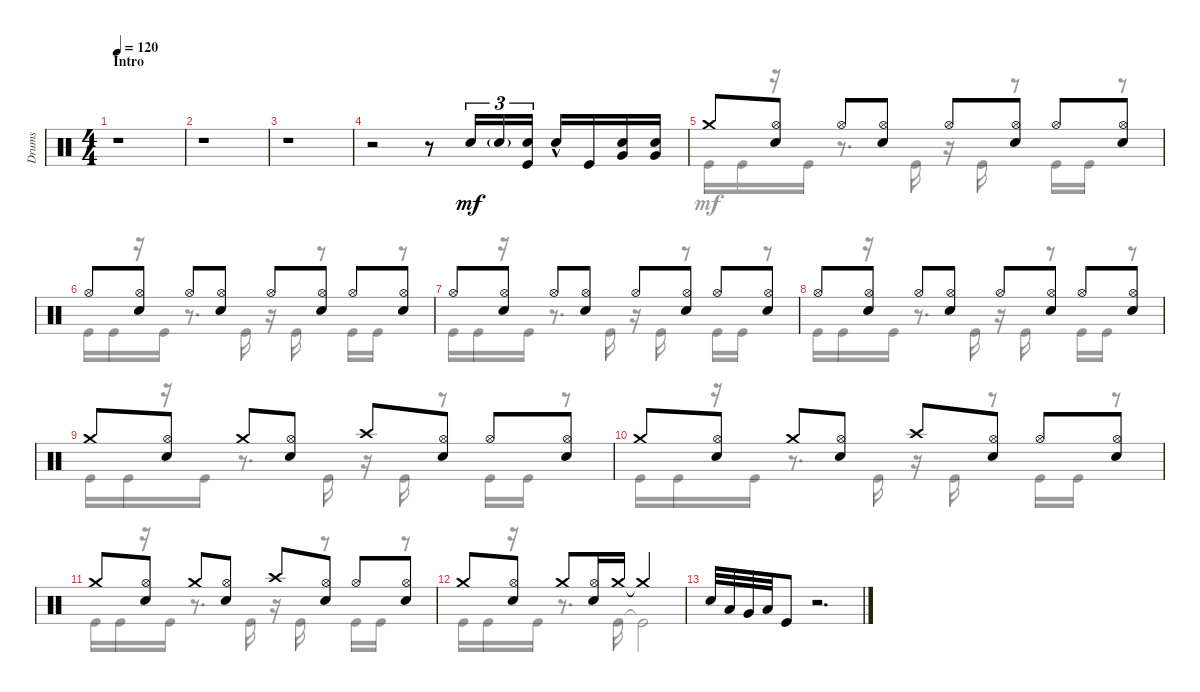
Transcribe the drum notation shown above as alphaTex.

\track ("Drums" "Drums") {instrument percussion}
\staff {score}
\articulation defaults
\voice
\ts (4 4)
\section ("" "Intro")
\tempo 120
\clef neutral
\ks c
r.1{dy mf} |
r.1 |
r.1 |
r.2 r.8 "Snare (hit) 2".16{tu (3 2)} "Snare (hit) 2"{g}.16{tu (3 2)} ("Snare (hit) 2" "Kick (hit)").16{tu (3 2)} "Snare (hit) 2"{hac}.16 "Kick (hit)".16 ("Snare (hit) 2" "Very Low Tom (hit)").16 ("Snare (hit) 2" "Very Low Tom (hit)").16 |
\section ("" "")
"Crash medium (hit)".8 ("Hi-Hat (open)" "Snare (hit) 2").8 "Hi-Hat (open)".8 ("Hi-Hat (open)" "Snare (hit) 2").8 "Hi-Hat (open)".8 ("Hi-Hat (open)" "Snare (hit) 2").8 "Hi-Hat (open)".8 ("Hi-Hat (open)" "Snare (hit) 2").8 |
"Hi-Hat (open)".8 ("Hi-Hat (open)" "Snare (hit) 2").8 "Hi-Hat (open)".8 ("Hi-Hat (open)" "Snare (hit) 2").8 "Hi-Hat (open)".8 ("Hi-Hat (open)" "Snare (hit) 2").8 "Hi-Hat (open)".8 ("Hi-Hat (open)" "Snare (hit) 2").8 |
"Hi-Hat (open)".8 ("Hi-Hat (open)" "Snare (hit) 2").8 "Hi-Hat (open)".8 ("Hi-Hat (open)" "Snare (hit) 2").8 "Hi-Hat (open)".8 ("Hi-Hat (open)" "Snare (hit) 2").8 "Hi-Hat (open)".8 ("Hi-Hat (open)" "Snare (hit) 2").8 |
"Hi-Hat (open)".8 ("Hi-Hat (open)" "Snare (hit) 2").8 "Hi-Hat (open)".8 ("Hi-Hat (open)" "Snare (hit) 2").8 "Hi-Hat (open)".8 ("Hi-Hat (open)" "Snare (hit) 2").8 "Hi-Hat (open)".8 ("Hi-Hat (open)" "Snare (hit) 2").8 |
\section ("" "")
"Crash medium (hit)".8 ("Hi-Hat (open)" "Snare (hit) 2").8 "Crash medium (hit)".8 ("Hi-Hat (open)" "Snare (hit) 2").8 "Crash high (hit)".8 ("Hi-Hat (open)" "Snare (hit) 2").8 "Hi-Hat (open)".8 ("Hi-Hat (open)" "Snare (hit) 2").8 |
"Crash medium (hit)".8 ("Hi-Hat (open)" "Snare (hit) 2").8 "Crash medium (hit)".8 ("Hi-Hat (open)" "Snare (hit) 2").8 "Crash high (hit)".8 ("Hi-Hat (open)" "Snare (hit) 2").8 "Hi-Hat (open)".8 ("Hi-Hat (open)" "Snare (hit) 2").8 |
"Crash medium (hit)".8 ("Hi-Hat (open)" "Snare (hit) 2").8 "Crash medium (hit)".8 ("Hi-Hat (open)" "Snare (hit) 2").8 "Crash high (hit)".8 ("Hi-Hat (open)" "Snare (hit) 2").8 "Hi-Hat (open)".8 ("Hi-Hat (open)" "Snare (hit) 2").8 |
"Crash medium (hit)".8 ("Hi-Hat (open)" "Snare (hit) 2").8 "Crash medium (hit)".8 ("Hi-Hat (open)" "Snare (hit) 2").16 "Crash medium (hit)".16 "Crash medium (hit)"{t}.2 |
"Snare (hit) 2".32 "Low Tom (hit)".32 "Very Low Tom (hit)".32 "Low Tom (hit)".32 "Kick (hit)".8 r.2{d}
\voice
\clef neutral
\ottava regular
\simile none
\ks c
|
|
|
|
"Kick (hit)".16 "Kick (hit)".16 r.16 "Kick (hit)".16 r.8{d} "Kick (hit)".16 r.16 "Kick (hit)".16 r.8 "Kick (hit)".16 "Kick (hit)".16 r.8 |
"Kick (hit)".16 "Kick (hit)".16 r.16 "Kick (hit)".16 r.8{d} "Kick (hit)".16 r.16 "Kick (hit)".16 r.8 "Kick (hit)".16 "Kick (hit)".16 r.8 |
"Kick (hit)".16 "Kick (hit)".16 r.16 "Kick (hit)".16 r.8{d} "Kick (hit)".16 r.16 "Kick (hit)".16 r.8 "Kick (hit)".16 "Kick (hit)".16 r.8 |
"Kick (hit)".16 "Kick (hit)".16 r.16 "Kick (hit)".16 r.8{d} "Kick (hit)".16 r.16 "Kick (hit)".16 r.8 "Kick (hit)".16 "Kick (hit)".16 r.8 |
"Kick (hit)".16 "Kick (hit)".16 r.16 "Kick (hit)".16 r.8{d} "Kick (hit)".16 r.16 "Kick (hit)".16 r.8 "Kick (hit)".16 "Kick (hit)".16 r.8 |
"Kick (hit)".16 "Kick (hit)".16 r.16 "Kick (hit)".16 r.8{d} "Kick (hit)".16 r.16 "Kick (hit)".16 r.8 "Kick (hit)".16 "Kick (hit)".16 r.8 |
"Kick (hit)".16 "Kick (hit)".16 r.16 "Kick (hit)".16 r.8{d} "Kick (hit)".16 r.16 "Kick (hit)".16 r.8 "Kick (hit)".16 "Kick (hit)".16 r.8 |
"Kick (hit)".16 "Kick (hit)".16 r.16 "Kick (hit)".16 r.8{d} "Kick (hit)".16 "Kick (hit)"{t}.2 |
